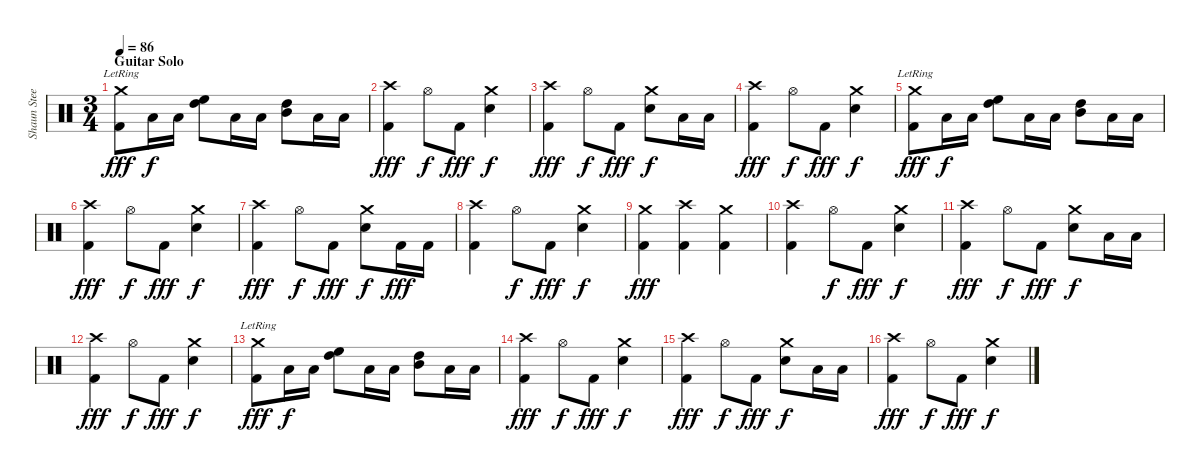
\track ("Shaun Steels (Drums)" "Shaun Stee") {instrument percussion}
\staff {score}
\articulation defaults
\ts (3 4)
\section ("" "Guitar Solo")
\tempo 86
\clef neutral
\ks c
("Crash medium (hit)"{lr} "Kick (hit) 2").8{dy fff} "Low Tom (hit)".16{dy f} "Low Tom (hit)".16 ("High Floor Tom (hit)" "High Tom (hit)").8{bd 120} "Low Tom (hit)".16 "Low Tom (hit)".16 ("High Tom (hit)" "Mid Tom (hit)").8{bd 120} "Low Tom (hit)".16 "Low Tom (hit)".16 |
("Crash high (hit)" "Kick (hit) 2").4{dy fff} "Hi-Hat (open)".8{dy f} "Kick (hit) 2".8{dy fff} ("Crash medium (hit)" "Snare (hit) 2").4{dy f} |
("Crash high (hit)" "Kick (hit) 2").4{dy fff} "Hi-Hat (open)".8{dy f} "Kick (hit) 2".8{dy fff} ("Crash medium (hit)" "Snare (hit) 2").8{dy f} "Low Tom (hit)".16 "Low Tom (hit)".16 |
("Crash high (hit)" "Kick (hit) 2").4{dy fff} "Hi-Hat (open)".8{dy f} "Kick (hit) 2".8{dy fff} ("Crash medium (hit)" "Snare (hit) 2").4{dy f} |
("Crash medium (hit)"{lr} "Kick (hit) 2").8{dy fff} "Low Tom (hit)".16{dy f} "Low Tom (hit)".16 ("High Floor Tom (hit)" "High Tom (hit)").8{bd 120} "Low Tom (hit)".16 "Low Tom (hit)".16 ("High Tom (hit)" "Mid Tom (hit)").8{bd 120} "Low Tom (hit)".16 "Low Tom (hit)".16 |
("Crash high (hit)" "Kick (hit) 2").4{dy fff} "Hi-Hat (open)".8{dy f} "Kick (hit) 2".8{dy fff} ("Crash medium (hit)" "Snare (hit) 2").4{dy f} |
("Crash high (hit)" "Kick (hit) 2").4{dy fff} "Hi-Hat (open)".8{dy f} "Kick (hit) 2".8{dy fff} ("Crash medium (hit)" "Snare (hit) 2").8{dy f} "Kick (hit) 2".16{dy fff} "Kick (hit) 2".16 |
("Crash high (hit)" "Kick (hit) 2").4 "Hi-Hat (open)".8{dy f} "Kick (hit) 2".8{dy fff} ("Crash medium (hit)" "Snare (hit) 2").4{dy f} |
("Crash medium (hit)" "Kick (hit) 2").4{dy fff} ("Crash high (hit)" "Kick (hit) 2").4 ("Crash medium (hit)" "Kick (hit) 2").4 |
("Crash high (hit)" "Kick (hit) 2").4 "Hi-Hat (open)".8{dy f} "Kick (hit) 2".8{dy fff} ("Crash medium (hit)" "Snare (hit) 2").4{dy f} |
("Crash high (hit)" "Kick (hit) 2").4{dy fff} "Hi-Hat (open)".8{dy f} "Kick (hit) 2".8{dy fff} ("Crash medium (hit)" "Snare (hit) 2").8{dy f} "Low Tom (hit)".16 "Low Tom (hit)".16 |
("Crash high (hit)" "Kick (hit) 2").4{dy fff} "Hi-Hat (open)".8{dy f} "Kick (hit) 2".8{dy fff} ("Crash medium (hit)" "Snare (hit) 2").4{dy f} |
("Crash medium (hit)"{lr} "Kick (hit) 2").8{dy fff} "Low Tom (hit)".16{dy f} "Low Tom (hit)".16 ("High Floor Tom (hit)" "High Tom (hit)").8{bd 120} "Low Tom (hit)".16 "Low Tom (hit)".16 ("High Tom (hit)" "Mid Tom (hit)").8{bd 120} "Low Tom (hit)".16 "Low Tom (hit)".16 |
("Crash high (hit)" "Kick (hit) 2").4{dy fff} "Hi-Hat (open)".8{dy f} "Kick (hit) 2".8{dy fff} ("Crash medium (hit)" "Snare (hit) 2").4{dy f} |
("Crash high (hit)" "Kick (hit) 2").4{dy fff} "Hi-Hat (open)".8{dy f} "Kick (hit) 2".8{dy fff} ("Crash medium (hit)" "Snare (hit) 2").8{dy f} "Low Tom (hit)".16 "Low Tom (hit)".16 |
("Crash high (hit)" "Kick (hit) 2").4{dy fff} "Hi-Hat (open)".8{dy f} "Kick (hit) 2".8{dy fff} ("Crash medium (hit)" "Snare (hit) 2").4{dy f}
